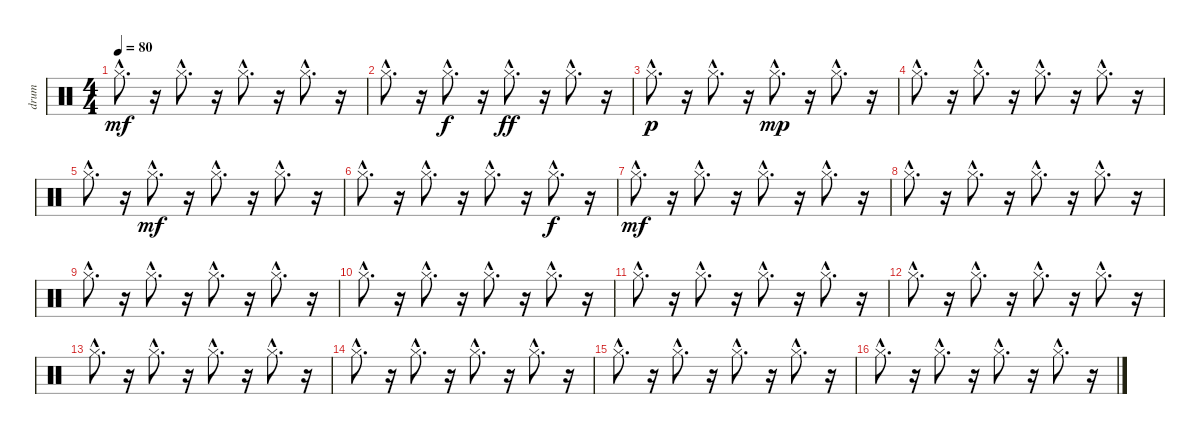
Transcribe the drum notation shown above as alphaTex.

\track ("drum" "drum") {instrument percussion}
\staff {score}
\articulation defaults
\ts (4 4)
\tempo 80
\clef neutral
\ks c "Hi-Hat (closed)"{hac}.8{d dy mf}
r.16 "Hi-Hat (closed)"{hac}.8{d} r.16 "Hi-Hat (closed)"{hac}.8{d} r.16 "Hi-Hat (closed)"{hac}.8{d} r.16 |
"Hi-Hat (closed)"{hac}.8{d} r.16 "Hi-Hat (closed)"{hac}.8{d dy f} r.16 "Hi-Hat (closed)"{hac}.8{d dy ff} r.16 "Hi-Hat (closed)"{hac}.8{d} r.16 |
"Hi-Hat (closed)"{hac}.8{d dy p} r.16 "Hi-Hat (closed)"{hac}.8{d} r.16 "Hi-Hat (closed)"{hac}.8{d dy mp} r.16 "Hi-Hat (closed)"{hac}.8{d} r.16 |
"Hi-Hat (closed)"{hac}.8{d} r.16 "Hi-Hat (closed)"{hac}.8{d} r.16 "Hi-Hat (closed)"{hac}.8{d} r.16 "Hi-Hat (closed)"{hac}.8{d} r.16 |
"Hi-Hat (closed)"{hac}.8{d} r.16 "Hi-Hat (closed)"{hac}.8{d dy mf} r.16 "Hi-Hat (closed)"{hac}.8{d} r.16 "Hi-Hat (closed)"{hac}.8{d} r.16 |
"Hi-Hat (closed)"{hac}.8{d} r.16 "Hi-Hat (closed)"{hac}.8{d} r.16 "Hi-Hat (closed)"{hac}.8{d} r.16 "Hi-Hat (closed)"{hac}.8{d dy f} r.16 |
"Hi-Hat (closed)"{hac}.8{d dy mf} r.16 "Hi-Hat (closed)"{hac}.8{d} r.16 "Hi-Hat (closed)"{hac}.8{d} r.16 "Hi-Hat (closed)"{hac}.8{d} r.16 |
"Hi-Hat (closed)"{hac}.8{d} r.16 "Hi-Hat (closed)"{hac}.8{d} r.16 "Hi-Hat (closed)"{hac}.8{d} r.16 "Hi-Hat (closed)"{hac}.8{d} r.16 |
"Hi-Hat (closed)"{hac}.8{d} r.16 "Hi-Hat (closed)"{hac}.8{d} r.16 "Hi-Hat (closed)"{hac}.8{d} r.16 "Hi-Hat (closed)"{hac}.8{d} r.16 |
"Hi-Hat (closed)"{hac}.8{d} r.16 "Hi-Hat (closed)"{hac}.8{d} r.16 "Hi-Hat (closed)"{hac}.8{d} r.16 "Hi-Hat (closed)"{hac}.8{d} r.16 |
"Hi-Hat (closed)"{hac}.8{d} r.16 "Hi-Hat (closed)"{hac}.8{d} r.16 "Hi-Hat (closed)"{hac}.8{d} r.16 "Hi-Hat (closed)"{hac}.8{d} r.16 |
"Hi-Hat (closed)"{hac}.8{d} r.16 "Hi-Hat (closed)"{hac}.8{d} r.16 "Hi-Hat (closed)"{hac}.8{d} r.16 "Hi-Hat (closed)"{hac}.8{d} r.16 |
"Hi-Hat (closed)"{hac}.8{d} r.16 "Hi-Hat (closed)"{hac}.8{d} r.16 "Hi-Hat (closed)"{hac}.8{d} r.16 "Hi-Hat (closed)"{hac}.8{d} r.16 |
"Hi-Hat (closed)"{hac}.8{d} r.16 "Hi-Hat (closed)"{hac}.8{d} r.16 "Hi-Hat (closed)"{hac}.8{d} r.16 "Hi-Hat (closed)"{hac}.8{d} r.16 |
"Hi-Hat (closed)"{hac}.8{d} r.16 "Hi-Hat (closed)"{hac}.8{d} r.16 "Hi-Hat (closed)"{hac}.8{d} r.16 "Hi-Hat (closed)"{hac}.8{d} r.16 |
"Hi-Hat (closed)"{hac}.8{d} r.16 "Hi-Hat (closed)"{hac}.8{d} r.16 "Hi-Hat (closed)"{hac}.8{d} r.16 "Hi-Hat (closed)"{hac}.8{d} r.16
